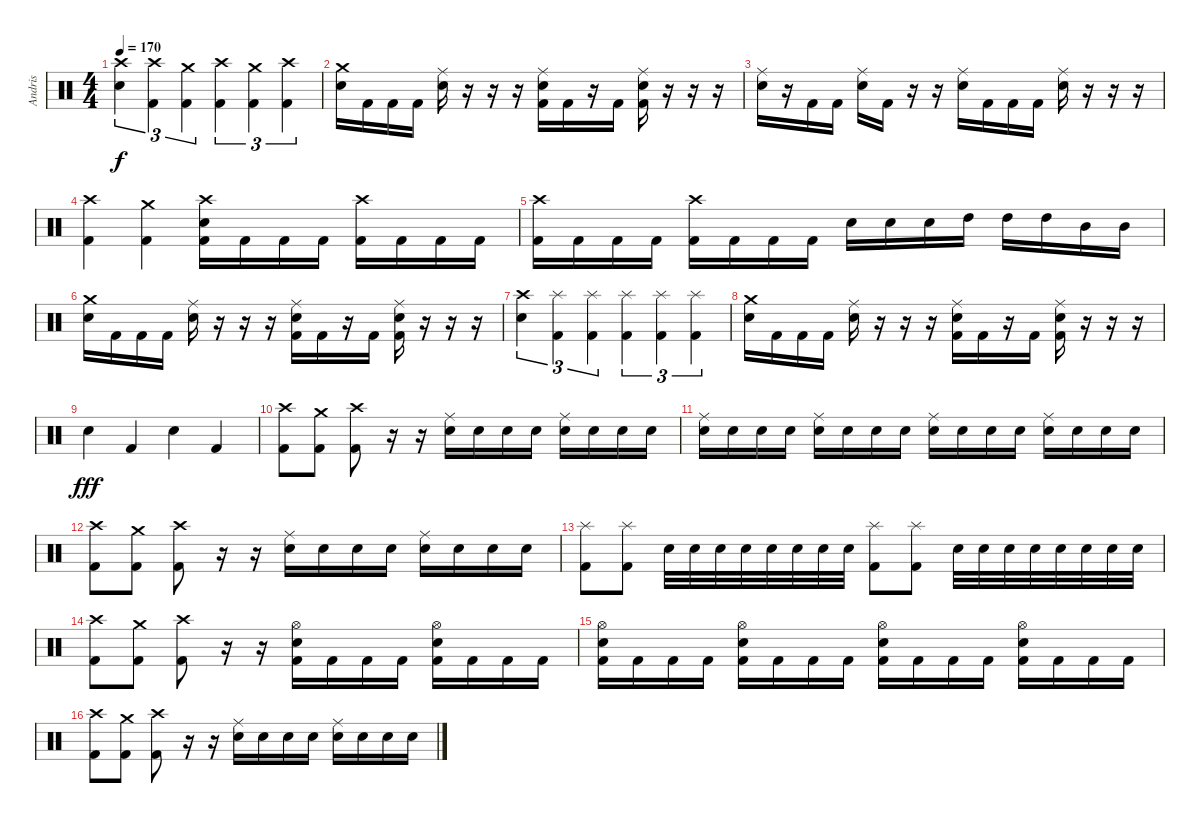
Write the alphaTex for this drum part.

\track ("Andris" "Andris") {instrument percussion}
\staff {score}
\articulation defaults
\ts (4 4)
\tempo 170
\clef neutral
\ks c
("Crash high (hit)" "Electric Snare (hit)").4{tu (3 2) dy f} ("Crash high (hit)" "Kick (hit) 2").4{tu (3 2)} ("Crash medium (hit)" "Kick (hit) 2").4{tu (3 2)} ("Crash high (hit)" "Kick (hit) 2").4{tu (3 2)} ("Crash medium (hit)" "Kick (hit) 2").4{tu (3 2)} ("Kick (hit) 2" "Crash high (hit)").4{tu (3 2)} |
("Crash medium (hit)" "Electric Snare (hit)").16 "Kick (hit) 2".16 "Kick (hit) 2".16 "Kick (hit) 2".16 ("Ride (middle)" "Electric Snare (hit)").16 r.16 r.16 r.16 ("Ride (middle)" "Electric Snare (hit)" "Kick (hit) 2").16 "Kick (hit) 2".16 r.16 "Kick (hit) 2".16 ("Ride (middle)" "Electric Snare (hit)" "Kick (hit) 2").16 r.16 r.16 r.16 |
("Ride (middle)" "Electric Snare (hit)").16 r.16 "Kick (hit) 2".16 "Kick (hit) 2".16 ("Ride (middle)" "Electric Snare (hit)").16 "Kick (hit) 2".16 r.16 r.16 ("Ride (middle)" "Electric Snare (hit)").16 "Kick (hit) 2".16 "Kick (hit) 2".16 "Kick (hit) 2".16 ("Ride (middle)" "Electric Snare (hit)").16 r.16 r.16 r.16 |
("Kick (hit) 2" "Crash high (hit)").4 ("Crash medium (hit)" "Kick (hit) 2").4 ("Crash high (hit)" "Kick (hit) 2" "Electric Snare (hit)").16 "Kick (hit) 2".16 "Kick (hit) 2".16 "Kick (hit) 2".16 ("Crash high (hit)" "Kick (hit) 2").16 "Kick (hit) 2".16 "Kick (hit) 2".16 "Kick (hit) 2".16 |
("Kick (hit) 2" "Crash high (hit)").16 "Kick (hit) 2".16 "Kick (hit) 2".16 "Kick (hit) 2".16 ("Crash high (hit)" "Kick (hit) 2").16 "Kick (hit) 2".16 "Kick (hit) 2".16 "Kick (hit) 2".16 "Electric Snare (hit)".16 "Electric Snare (hit)".16 "Electric Snare (hit)".16 "High Tom (hit)".16 "High Tom (hit)".16 "High Tom (hit)".16 "Mid Tom (hit)".16 "Mid Tom (hit)".16 |
("Crash medium (hit)" "Electric Snare (hit)").16 "Kick (hit) 2".16 "Kick (hit) 2".16 "Kick (hit) 2".16 ("Ride (middle)" "Electric Snare (hit)").16 r.16 r.16 r.16 ("Ride (middle)" "Electric Snare (hit)" "Kick (hit) 2").16 "Kick (hit) 2".16 r.16 "Kick (hit) 2".16 ("Ride (middle)" "Electric Snare (hit)" "Kick (hit) 2").16 r.16 r.16 r.16 |
("Crash high (hit)" "Electric Snare (hit)").4{tu (3 2)} ("Splash (hit)" "Kick (hit) 2").4{tu (3 2)} ("Splash (hit)" "Kick (hit) 2").4{tu (3 2)} ("Splash (hit)" "Kick (hit) 2").4{tu (3 2)} ("Splash (hit)" "Kick (hit) 2").4{tu (3 2)} ("Splash (hit)" "Kick (hit) 2").4{tu (3 2)} |
("Crash medium (hit)" "Electric Snare (hit)").16 "Kick (hit) 2".16 "Kick (hit) 2".16 "Kick (hit) 2".16 ("Ride (middle)" "Electric Snare (hit)").16 r.16 r.16 r.16 ("Ride (middle)" "Electric Snare (hit)" "Kick (hit) 2").16 "Kick (hit) 2".16 r.16 "Kick (hit) 2".16 ("Ride (middle)" "Electric Snare (hit)" "Kick (hit) 2").16 r.16 r.16 r.16 |
"Electric Snare (hit)".4{dy fff} "Kick (hit) 2".4 "Electric Snare (hit)".4 "Kick (hit) 2".4 |
("Kick (hit) 2" "Crash high (hit)").8 ("Kick (hit) 2" "Crash medium (hit)").8 ("Kick (hit) 2" "Crash high (hit)").8 r.16 r.16 ("Ride (middle)" "Electric Snare (hit)").16 "Electric Snare (hit)".16 "Electric Snare (hit)".16 "Electric Snare (hit)".16 ("Ride (middle)" "Electric Snare (hit)").16 "Electric Snare (hit)".16 "Electric Snare (hit)".16 "Electric Snare (hit)".16 |
("Ride (middle)" "Electric Snare (hit)").16 "Electric Snare (hit)".16 "Electric Snare (hit)".16 "Electric Snare (hit)".16 ("Ride (middle)" "Electric Snare (hit)").16 "Electric Snare (hit)".16 "Electric Snare (hit)".16 "Electric Snare (hit)".16 ("Ride (middle)" "Electric Snare (hit)").16 "Electric Snare (hit)".16 "Electric Snare (hit)".16 "Electric Snare (hit)".16 ("Ride (middle)" "Electric Snare (hit)").16 "Electric Snare (hit)".16 "Electric Snare (hit)".16 "Electric Snare (hit)".16 |
("Kick (hit) 2" "Crash high (hit)").8 ("Kick (hit) 2" "Crash medium (hit)").8 ("Kick (hit) 2" "Crash high (hit)").8 r.16 r.16 ("Ride (middle)" "Electric Snare (hit)").16 "Electric Snare (hit)".16 "Electric Snare (hit)".16 "Electric Snare (hit)".16 ("Ride (middle)" "Electric Snare (hit)").16 "Electric Snare (hit)".16 "Electric Snare (hit)".16 "Electric Snare (hit)".16 |
("Splash (hit)" "Kick (hit) 2").8 ("Splash (hit)" "Kick (hit) 2").8 "Electric Snare (hit)".32 "Electric Snare (hit)".32 "Electric Snare (hit)".32 "Electric Snare (hit)".32 "Electric Snare (hit)".32 "Electric Snare (hit)".32 "Electric Snare (hit)".32 "Electric Snare (hit)".32 ("Splash (hit)" "Kick (hit) 2").8 ("Splash (hit)" "Kick (hit) 2").8 "Electric Snare (hit)".32 "Electric Snare (hit)".32 "Electric Snare (hit)".32 "Electric Snare (hit)".32 "Electric Snare (hit)".32 "Electric Snare (hit)".32 "Electric Snare (hit)".32 "Electric Snare (hit)".32 |
("Crash high (hit)" "Kick (hit) 2").8 ("Crash medium (hit)" "Kick (hit) 2").8 ("Crash high (hit)" "Kick (hit) 2").8 r.16 r.16 ("Hi-Hat (open)" "Kick (hit) 2" "Electric Snare (hit)").16 "Kick (hit) 2".16 "Kick (hit) 2".16 "Kick (hit) 2".16 ("Hi-Hat (open)" "Electric Snare (hit)" "Kick (hit) 2").16 "Kick (hit) 2".16 "Kick (hit) 2".16 "Kick (hit) 2".16 |
("Hi-Hat (open)" "Kick (hit) 2" "Electric Snare (hit)").16 "Kick (hit) 2".16 "Kick (hit) 2".16 "Kick (hit) 2".16 ("Hi-Hat (open)" "Electric Snare (hit)" "Kick (hit) 2").16 "Kick (hit) 2".16 "Kick (hit) 2".16 "Kick (hit) 2".16 ("Hi-Hat (open)" "Kick (hit) 2" "Electric Snare (hit)").16 "Kick (hit) 2".16 "Kick (hit) 2".16 "Kick (hit) 2".16 ("Hi-Hat (open)" "Electric Snare (hit)" "Kick (hit) 2").16 "Kick (hit) 2".16 "Kick (hit) 2".16 "Kick (hit) 2".16 |
("Kick (hit) 2" "Crash high (hit)").8 ("Kick (hit) 2" "Crash medium (hit)").8 ("Kick (hit) 2" "Crash high (hit)").8 r.16 r.16 ("Ride (middle)" "Electric Snare (hit)").16 "Electric Snare (hit)".16 "Electric Snare (hit)".16 "Electric Snare (hit)".16 ("Ride (middle)" "Electric Snare (hit)").16 "Electric Snare (hit)".16 "Electric Snare (hit)".16 "Electric Snare (hit)".16
